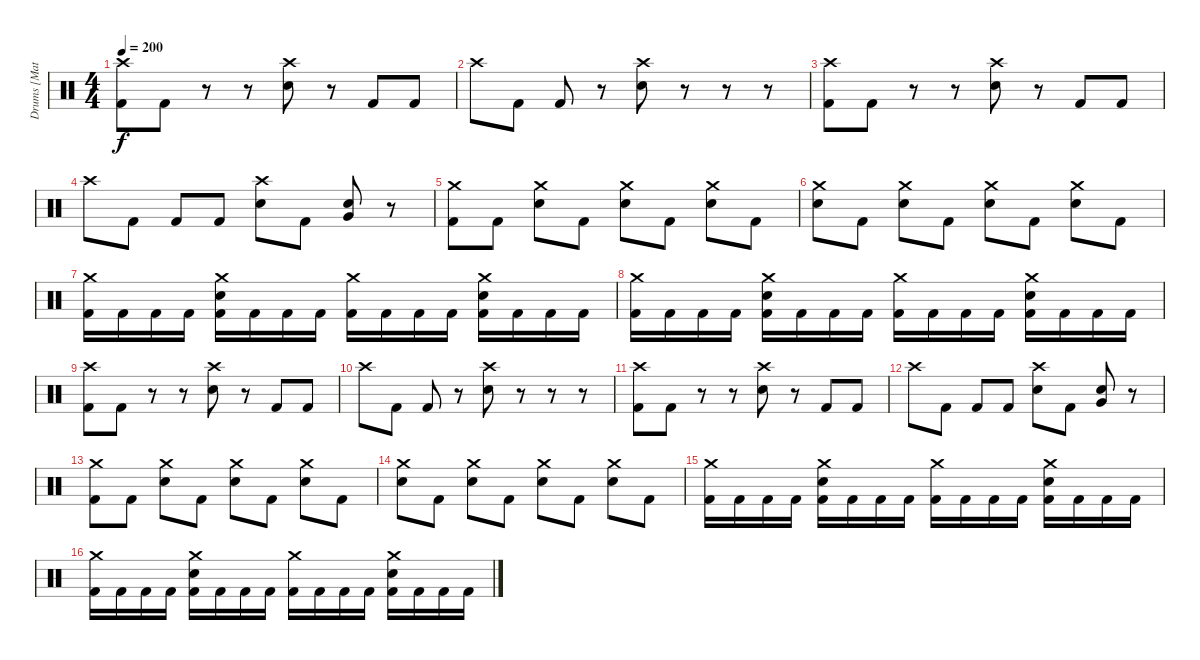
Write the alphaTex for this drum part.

\track ("Drums [Matt]" "Drums [Mat") {instrument percussion}
\staff {score}
\articulation defaults
\ts (4 4)
\tempo 200
\clef neutral
\ks c
("Crash high (hit)" "Kick (hit) 2").8{dy f} "Kick (hit) 2".8 r.8 r.8 ("Crash high (hit)" "Electric Snare (hit)").8 r.8 "Kick (hit) 2".8 "Kick (hit) 2".8 |
"Crash high (hit)".8 "Kick (hit) 2".8 "Kick (hit) 2".8 r.8 ("Crash high (hit)" "Electric Snare (hit)").8 r.8 r.8 r.8 |
("Crash high (hit)" "Kick (hit) 2").8 "Kick (hit) 2".8 r.8 r.8 ("Crash high (hit)" "Electric Snare (hit)").8 r.8 "Kick (hit) 2".8 "Kick (hit) 2".8 |
"Crash high (hit)".8 "Kick (hit) 2".8 "Kick (hit) 2".8 "Kick (hit) 2".8 ("Crash high (hit)" "Electric Snare (hit)").8 "Kick (hit) 2".8 ("Very Low Tom (hit)" "Electric Snare (hit)").8 r.8 |
("Crash medium (hit)" "Kick (hit) 2").8 "Kick (hit) 2".8 ("Crash medium (hit)" "Electric Snare (hit)").8 "Kick (hit) 2".8 ("Crash medium (hit)" "Electric Snare (hit)").8 "Kick (hit) 2".8 ("Crash medium (hit)" "Electric Snare (hit)").8 "Kick (hit) 2".8 |
("Crash medium (hit)" "Electric Snare (hit)").8 "Kick (hit) 2".8 ("Crash medium (hit)" "Electric Snare (hit)").8 "Kick (hit) 2".8 ("Crash medium (hit)" "Electric Snare (hit)").8 "Kick (hit) 2".8 ("Crash medium (hit)" "Electric Snare (hit)").8 "Kick (hit) 2".8 |
("Crash medium (hit)" "Kick (hit) 2").16 "Kick (hit) 2".16 "Kick (hit) 2".16 "Kick (hit) 2".16 ("Crash medium (hit)" "Electric Snare (hit)" "Kick (hit) 2").16 "Kick (hit) 2".16 "Kick (hit) 2".16 "Kick (hit) 2".16 ("Crash medium (hit)" "Kick (hit) 2").16 "Kick (hit) 2".16 "Kick (hit) 2".16 "Kick (hit) 2".16 ("Crash medium (hit)" "Electric Snare (hit)" "Kick (hit) 2").16 "Kick (hit) 2".16 "Kick (hit) 2".16 "Kick (hit) 2".16 |
("Crash medium (hit)" "Kick (hit) 2").16 "Kick (hit) 2".16 "Kick (hit) 2".16 "Kick (hit) 2".16 ("Crash medium (hit)" "Electric Snare (hit)" "Kick (hit) 2").16 "Kick (hit) 2".16 "Kick (hit) 2".16 "Kick (hit) 2".16 ("Crash medium (hit)" "Kick (hit) 2").16 "Kick (hit) 2".16 "Kick (hit) 2".16 "Kick (hit) 2".16 ("Crash medium (hit)" "Electric Snare (hit)" "Kick (hit) 2").16 "Kick (hit) 2".16 "Kick (hit) 2".16 "Kick (hit) 2".16 |
("Crash high (hit)" "Kick (hit) 2").8 "Kick (hit) 2".8 r.8 r.8 ("Crash high (hit)" "Electric Snare (hit)").8 r.8 "Kick (hit) 2".8 "Kick (hit) 2".8 |
"Crash high (hit)".8 "Kick (hit) 2".8 "Kick (hit) 2".8 r.8 ("Crash high (hit)" "Electric Snare (hit)").8 r.8 r.8 r.8 |
("Crash high (hit)" "Kick (hit) 2").8 "Kick (hit) 2".8 r.8 r.8 ("Crash high (hit)" "Electric Snare (hit)").8 r.8 "Kick (hit) 2".8 "Kick (hit) 2".8 |
"Crash high (hit)".8 "Kick (hit) 2".8 "Kick (hit) 2".8 "Kick (hit) 2".8 ("Crash high (hit)" "Electric Snare (hit)").8 "Kick (hit) 2".8 ("Very Low Tom (hit)" "Electric Snare (hit)").8 r.8 |
("Crash medium (hit)" "Kick (hit) 2").8 "Kick (hit) 2".8 ("Crash medium (hit)" "Electric Snare (hit)").8 "Kick (hit) 2".8 ("Crash medium (hit)" "Electric Snare (hit)").8 "Kick (hit) 2".8 ("Crash medium (hit)" "Electric Snare (hit)").8 "Kick (hit) 2".8 |
("Crash medium (hit)" "Electric Snare (hit)").8 "Kick (hit) 2".8 ("Crash medium (hit)" "Electric Snare (hit)").8 "Kick (hit) 2".8 ("Crash medium (hit)" "Electric Snare (hit)").8 "Kick (hit) 2".8 ("Crash medium (hit)" "Electric Snare (hit)").8 "Kick (hit) 2".8 |
("Crash medium (hit)" "Kick (hit) 2").16 "Kick (hit) 2".16 "Kick (hit) 2".16 "Kick (hit) 2".16 ("Crash medium (hit)" "Electric Snare (hit)" "Kick (hit) 2").16 "Kick (hit) 2".16 "Kick (hit) 2".16 "Kick (hit) 2".16 ("Crash medium (hit)" "Kick (hit) 2").16 "Kick (hit) 2".16 "Kick (hit) 2".16 "Kick (hit) 2".16 ("Crash medium (hit)" "Electric Snare (hit)" "Kick (hit) 2").16 "Kick (hit) 2".16 "Kick (hit) 2".16 "Kick (hit) 2".16 |
("Crash medium (hit)" "Kick (hit) 2").16 "Kick (hit) 2".16 "Kick (hit) 2".16 "Kick (hit) 2".16 ("Crash medium (hit)" "Electric Snare (hit)" "Kick (hit) 2").16 "Kick (hit) 2".16 "Kick (hit) 2".16 "Kick (hit) 2".16 ("Crash medium (hit)" "Kick (hit) 2").16 "Kick (hit) 2".16 "Kick (hit) 2".16 "Kick (hit) 2".16 ("Crash medium (hit)" "Electric Snare (hit)" "Kick (hit) 2").16 "Kick (hit) 2".16 "Kick (hit) 2".16 "Kick (hit) 2".16
